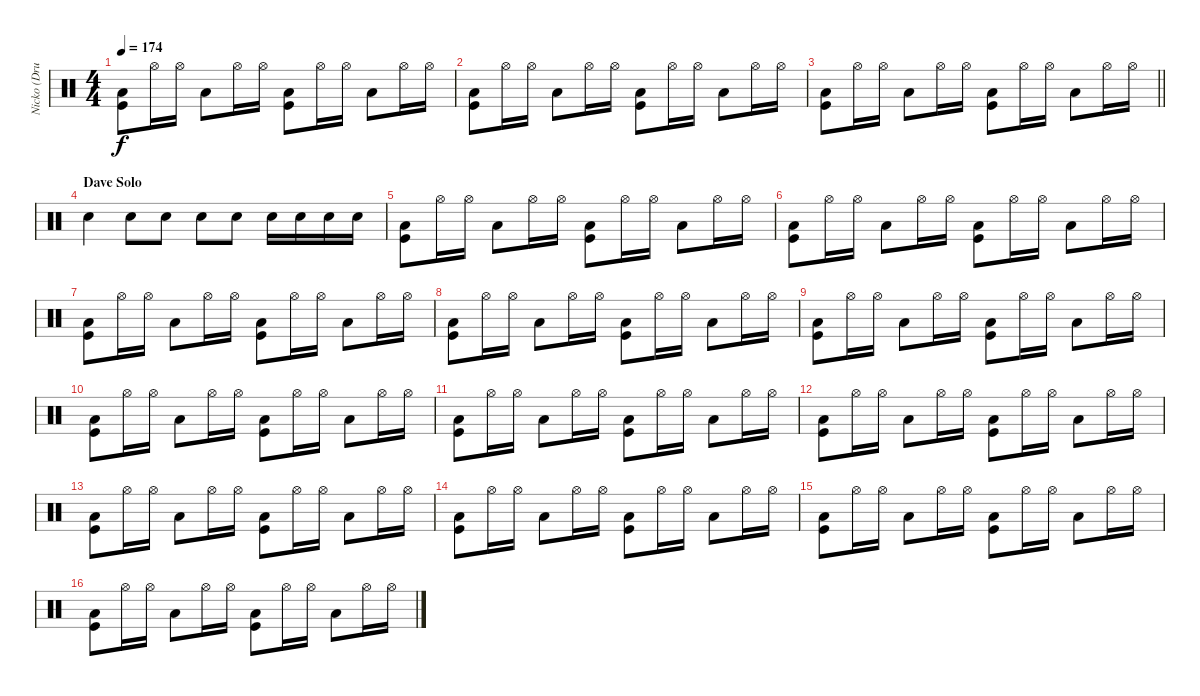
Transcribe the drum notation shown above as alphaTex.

\track ("Nicko (Drums)" "Nicko (Dru") {instrument percussion}
\staff {score}
\articulation defaults
\ts (4 4)
\tempo 174
\clef neutral
\ks c
("Low Tom (hit)" "Kick (hit)").8{dy f} "Hi-Hat (open)".16 "Hi-Hat (open)".16 "Low Tom (hit)".8 "Hi-Hat (open)".16 "Hi-Hat (open)".16 ("Low Tom (hit)" "Kick (hit)").8 "Hi-Hat (open)".16 "Hi-Hat (open)".16 "Low Tom (hit)".8 "Hi-Hat (open)".16 "Hi-Hat (open)".16 |
("Low Tom (hit)" "Kick (hit)").8 "Hi-Hat (open)".16 "Hi-Hat (open)".16 "Low Tom (hit)".8 "Hi-Hat (open)".16 "Hi-Hat (open)".16 ("Low Tom (hit)" "Kick (hit)").8 "Hi-Hat (open)".16 "Hi-Hat (open)".16 "Low Tom (hit)".8 "Hi-Hat (open)".16 "Hi-Hat (open)".16 |
\barLineRight lightlight
("Low Tom (hit)" "Kick (hit)").8 "Hi-Hat (open)".16 "Hi-Hat (open)".16 "Low Tom (hit)".8 "Hi-Hat (open)".16 "Hi-Hat (open)".16 ("Low Tom (hit)" "Kick (hit)").8 "Hi-Hat (open)".16 "Hi-Hat (open)".16 "Low Tom (hit)".8 "Hi-Hat (open)".16 "Hi-Hat (open)".16 |
\section ("" "Dave Solo")
"Snare (hit) 2".4 "Snare (hit) 2".8 "Snare (hit) 2".8 "Snare (hit) 2".8 "Snare (hit) 2".8 "Snare (hit) 2".16 "Snare (hit) 2".16 "Snare (hit) 2".16 "Snare (hit) 2".16 |
("Low Tom (hit)" "Kick (hit)").8 "Hi-Hat (open)".16 "Hi-Hat (open)".16 "Low Tom (hit)".8 "Hi-Hat (open)".16 "Hi-Hat (open)".16 ("Low Tom (hit)" "Kick (hit)").8 "Hi-Hat (open)".16 "Hi-Hat (open)".16 "Low Tom (hit)".8 "Hi-Hat (open)".16 "Hi-Hat (open)".16 |
("Low Tom (hit)" "Kick (hit)").8 "Hi-Hat (open)".16 "Hi-Hat (open)".16 "Low Tom (hit)".8 "Hi-Hat (open)".16 "Hi-Hat (open)".16 ("Low Tom (hit)" "Kick (hit)").8 "Hi-Hat (open)".16 "Hi-Hat (open)".16 "Low Tom (hit)".8 "Hi-Hat (open)".16 "Hi-Hat (open)".16 |
("Low Tom (hit)" "Kick (hit)").8 "Hi-Hat (open)".16 "Hi-Hat (open)".16 "Low Tom (hit)".8 "Hi-Hat (open)".16 "Hi-Hat (open)".16 ("Low Tom (hit)" "Kick (hit)").8 "Hi-Hat (open)".16 "Hi-Hat (open)".16 "Low Tom (hit)".8 "Hi-Hat (open)".16 "Hi-Hat (open)".16 |
("Low Tom (hit)" "Kick (hit)").8 "Hi-Hat (open)".16 "Hi-Hat (open)".16 "Low Tom (hit)".8 "Hi-Hat (open)".16 "Hi-Hat (open)".16 ("Low Tom (hit)" "Kick (hit)").8 "Hi-Hat (open)".16 "Hi-Hat (open)".16 "Low Tom (hit)".8 "Hi-Hat (open)".16 "Hi-Hat (open)".16 |
("Low Tom (hit)" "Kick (hit)").8 "Hi-Hat (open)".16 "Hi-Hat (open)".16 "Low Tom (hit)".8 "Hi-Hat (open)".16 "Hi-Hat (open)".16 ("Low Tom (hit)" "Kick (hit)").8 "Hi-Hat (open)".16 "Hi-Hat (open)".16 "Low Tom (hit)".8 "Hi-Hat (open)".16 "Hi-Hat (open)".16 |
("Low Tom (hit)" "Kick (hit)").8 "Hi-Hat (open)".16 "Hi-Hat (open)".16 "Low Tom (hit)".8 "Hi-Hat (open)".16 "Hi-Hat (open)".16 ("Low Tom (hit)" "Kick (hit)").8 "Hi-Hat (open)".16 "Hi-Hat (open)".16 "Low Tom (hit)".8 "Hi-Hat (open)".16 "Hi-Hat (open)".16 |
("Low Tom (hit)" "Kick (hit)").8 "Hi-Hat (open)".16 "Hi-Hat (open)".16 "Low Tom (hit)".8 "Hi-Hat (open)".16 "Hi-Hat (open)".16 ("Low Tom (hit)" "Kick (hit)").8 "Hi-Hat (open)".16 "Hi-Hat (open)".16 "Low Tom (hit)".8 "Hi-Hat (open)".16 "Hi-Hat (open)".16 |
("Low Tom (hit)" "Kick (hit)").8 "Hi-Hat (open)".16 "Hi-Hat (open)".16 "Low Tom (hit)".8 "Hi-Hat (open)".16 "Hi-Hat (open)".16 ("Low Tom (hit)" "Kick (hit)").8 "Hi-Hat (open)".16 "Hi-Hat (open)".16 "Low Tom (hit)".8 "Hi-Hat (open)".16 "Hi-Hat (open)".16 |
("Low Tom (hit)" "Kick (hit)").8 "Hi-Hat (open)".16 "Hi-Hat (open)".16 "Low Tom (hit)".8 "Hi-Hat (open)".16 "Hi-Hat (open)".16 ("Low Tom (hit)" "Kick (hit)").8 "Hi-Hat (open)".16 "Hi-Hat (open)".16 "Low Tom (hit)".8 "Hi-Hat (open)".16 "Hi-Hat (open)".16 |
("Low Tom (hit)" "Kick (hit)").8 "Hi-Hat (open)".16 "Hi-Hat (open)".16 "Low Tom (hit)".8 "Hi-Hat (open)".16 "Hi-Hat (open)".16 ("Low Tom (hit)" "Kick (hit)").8 "Hi-Hat (open)".16 "Hi-Hat (open)".16 "Low Tom (hit)".8 "Hi-Hat (open)".16 "Hi-Hat (open)".16 |
("Low Tom (hit)" "Kick (hit)").8 "Hi-Hat (open)".16 "Hi-Hat (open)".16 "Low Tom (hit)".8 "Hi-Hat (open)".16 "Hi-Hat (open)".16 ("Low Tom (hit)" "Kick (hit)").8 "Hi-Hat (open)".16 "Hi-Hat (open)".16 "Low Tom (hit)".8 "Hi-Hat (open)".16 "Hi-Hat (open)".16 |
("Low Tom (hit)" "Kick (hit)").8 "Hi-Hat (open)".16 "Hi-Hat (open)".16 "Low Tom (hit)".8 "Hi-Hat (open)".16 "Hi-Hat (open)".16 ("Low Tom (hit)" "Kick (hit)").8 "Hi-Hat (open)".16 "Hi-Hat (open)".16 "Low Tom (hit)".8 "Hi-Hat (open)".16 "Hi-Hat (open)".16
